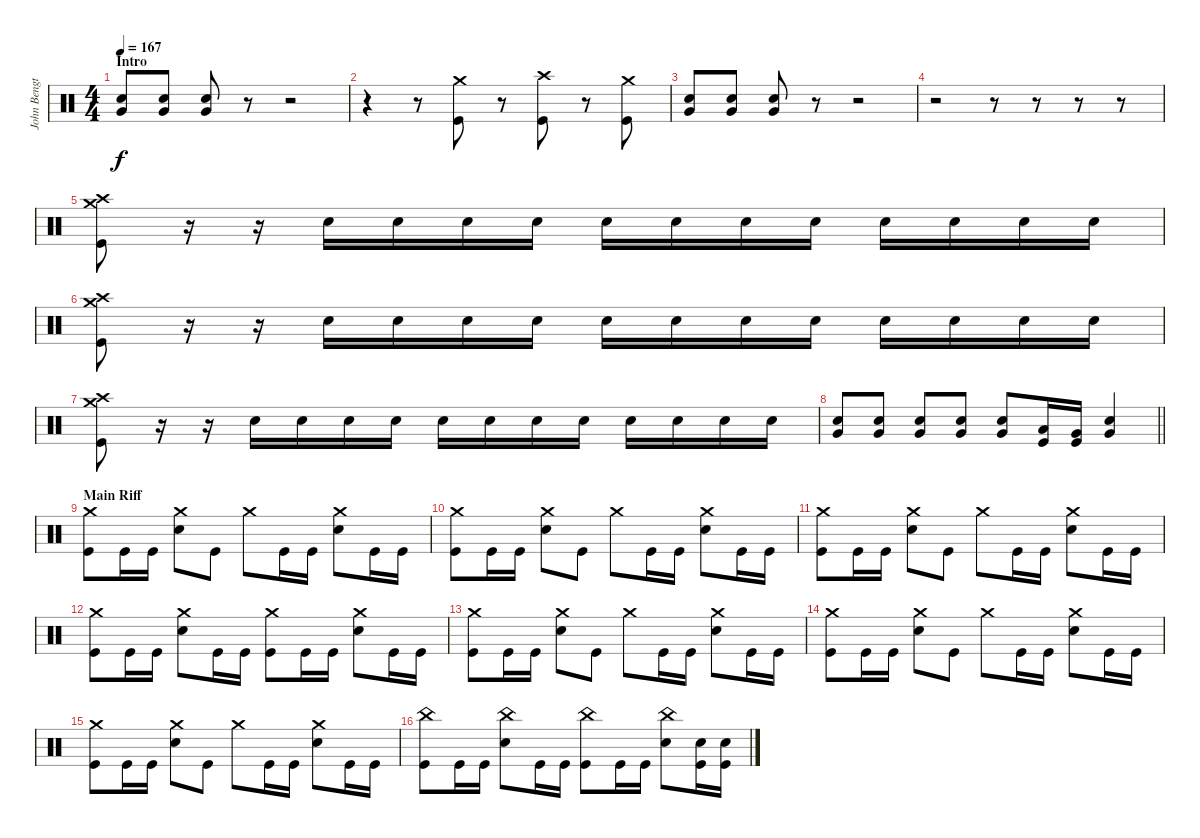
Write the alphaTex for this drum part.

\track ("John Bengtsson" "John Bengt") {instrument percussion}
\staff {score}
\articulation defaults
\ts (4 4)
\section ("" "Intro")
\tempo 167
\clef neutral
\ks c
("Snare (hit) 2" "Very Low Tom (hit)").8{dy f} ("Snare (hit) 2" "Very Low Tom (hit)").8 ("Snare (hit) 2" "Very Low Tom (hit)").8 r.8 r.2 |
r.4 r.8 ("Crash medium (hit)" "Kick (hit)").8 r.8 ("Crash high (hit)" "Kick (hit)").8 r.8 ("Crash medium (hit)" "Kick (hit)").8 |
("Snare (hit) 2" "Very Low Tom (hit)").8 ("Snare (hit) 2" "Very Low Tom (hit)").8 ("Snare (hit) 2" "Very Low Tom (hit)").8 r.8 r.2 |
r.2 r.8 r.8 r.8 r.8 |
("Crash medium (hit)" "Crash high (hit)" "Kick (hit)").8 r.16 r.16 "Snare (hit) 2".16 "Snare (hit) 2".16 "Snare (hit) 2".16 "Snare (hit) 2".16 "Snare (hit) 2".16 "Snare (hit) 2".16 "Snare (hit) 2".16 "Snare (hit) 2".16 "Snare (hit) 2".16 "Snare (hit) 2".16 "Snare (hit) 2".16 "Snare (hit) 2".16 |
("Crash medium (hit)" "Crash high (hit)" "Kick (hit)").8 r.16 r.16 "Snare (hit) 2".16 "Snare (hit) 2".16 "Snare (hit) 2".16 "Snare (hit) 2".16 "Snare (hit) 2".16 "Snare (hit) 2".16 "Snare (hit) 2".16 "Snare (hit) 2".16 "Snare (hit) 2".16 "Snare (hit) 2".16 "Snare (hit) 2".16 "Snare (hit) 2".16 |
("Crash medium (hit)" "Crash high (hit)" "Kick (hit)").8 r.16 r.16 "Snare (hit) 2".16 "Snare (hit) 2".16 "Snare (hit) 2".16 "Snare (hit) 2".16 "Snare (hit) 2".16 "Snare (hit) 2".16 "Snare (hit) 2".16 "Snare (hit) 2".16 "Snare (hit) 2".16 "Snare (hit) 2".16 "Snare (hit) 2".16 "Snare (hit) 2".16 |
\barLineRight lightlight
("Snare (hit) 2" "Very Low Tom (hit)").8 ("Snare (hit) 2" "Very Low Tom (hit)").8 ("Snare (hit) 2" "Very Low Tom (hit)").8 ("Snare (hit) 2" "Very Low Tom (hit)").8 ("Snare (hit) 2" "Very Low Tom (hit)").8 ("Low Tom (hit)" "Kick (hit)").16 ("Very Low Tom (hit)" "Kick (hit)").16 ("Snare (hit) 2" "Very Low Tom (hit)").4 |
\section ("" "Main Riff")
("Crash medium (hit)" "Kick (hit)").8 "Kick (hit)".16 "Kick (hit)".16 ("Crash medium (hit)" "Snare (hit) 2").8 "Kick (hit)".8 "Crash medium (hit)".8 "Kick (hit)".16 "Kick (hit)".16 ("Crash medium (hit)" "Snare (hit) 2").8 "Kick (hit)".16 "Kick (hit)".16 |
("Crash medium (hit)" "Kick (hit)").8 "Kick (hit)".16 "Kick (hit)".16 ("Crash medium (hit)" "Snare (hit) 2").8 "Kick (hit)".8 "Crash medium (hit)".8 "Kick (hit)".16 "Kick (hit)".16 ("Crash medium (hit)" "Snare (hit) 2").8 "Kick (hit)".16 "Kick (hit)".16 |
("Crash medium (hit)" "Kick (hit)").8 "Kick (hit)".16 "Kick (hit)".16 ("Crash medium (hit)" "Snare (hit) 2").8 "Kick (hit)".8 "Crash medium (hit)".8 "Kick (hit)".16 "Kick (hit)".16 ("Crash medium (hit)" "Snare (hit) 2").8 "Kick (hit)".16 "Kick (hit)".16 |
("Crash medium (hit)" "Kick (hit)").8 "Kick (hit)".16 "Kick (hit)".16 ("Crash medium (hit)" "Snare (hit) 2").8 "Kick (hit)".16 "Kick (hit)".16 ("Crash medium (hit)" "Kick (hit)").8 "Kick (hit)".16 "Kick (hit)".16 ("Crash medium (hit)" "Snare (hit) 2").8 "Kick (hit)".16 "Kick (hit)".16 |
("Crash medium (hit)" "Kick (hit)").8 "Kick (hit)".16 "Kick (hit)".16 ("Crash medium (hit)" "Snare (hit) 2").8 "Kick (hit)".8 "Crash medium (hit)".8 "Kick (hit)".16 "Kick (hit)".16 ("Crash medium (hit)" "Snare (hit) 2").8 "Kick (hit)".16 "Kick (hit)".16 |
("Crash medium (hit)" "Kick (hit)").8 "Kick (hit)".16 "Kick (hit)".16 ("Crash medium (hit)" "Snare (hit) 2").8 "Kick (hit)".8 "Crash medium (hit)".8 "Kick (hit)".16 "Kick (hit)".16 ("Crash medium (hit)" "Snare (hit) 2").8 "Kick (hit)".16 "Kick (hit)".16 |
("Crash medium (hit)" "Kick (hit)").8 "Kick (hit)".16 "Kick (hit)".16 ("Crash medium (hit)" "Snare (hit) 2").8 "Kick (hit)".8 "Crash medium (hit)".8 "Kick (hit)".16 "Kick (hit)".16 ("Crash medium (hit)" "Snare (hit) 2").8 "Kick (hit)".16 "Kick (hit)".16 |
("China (hit)" "Kick (hit)").8 "Kick (hit)".16 "Kick (hit)".16 ("China (hit)" "Snare (hit) 2").8 "Kick (hit)".16 "Kick (hit)".16 ("China (hit)" "Kick (hit)").8 "Kick (hit)".16 "Kick (hit)".16 ("China (hit)" "Snare (hit) 2").8 ("Snare (hit) 2" "Kick (hit)").16 ("Snare (hit) 2" "Kick (hit)").16
